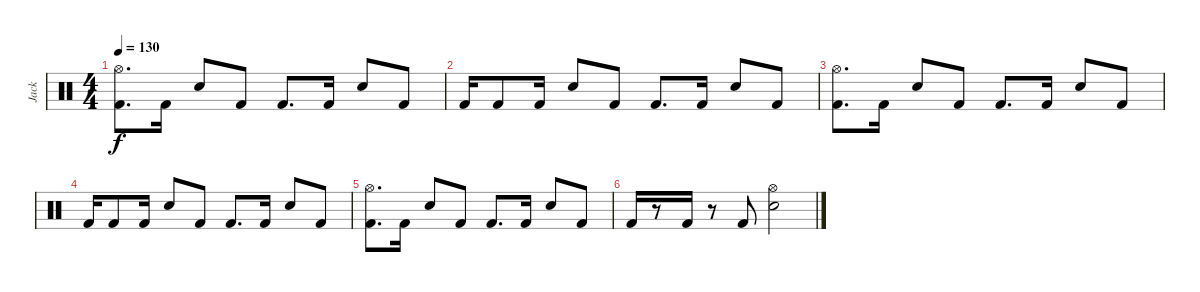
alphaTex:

\track ("Jack" "Jack") {instrument percussion}
\staff {score}
\articulation defaults
\ts (4 4)
\tempo 130
\clef neutral
\ks c
("Hi-Hat (open)" "Kick (hit) 2").8{d dy f} "Kick (hit) 2".16 "Snare (hit) 2".8 "Kick (hit) 2".8 "Kick (hit) 2".8{d} "Kick (hit) 2".16 "Snare (hit) 2".8 "Kick (hit) 2".8 |
"Kick (hit) 2".16 "Kick (hit) 2".8 "Kick (hit) 2".16 "Snare (hit) 2".8 "Kick (hit) 2".8 "Kick (hit) 2".8{d} "Kick (hit) 2".16 "Snare (hit) 2".8 "Kick (hit) 2".8 |
("Hi-Hat (open)" "Kick (hit) 2").8{d} "Kick (hit) 2".16 "Snare (hit) 2".8 "Kick (hit) 2".8 "Kick (hit) 2".8{d} "Kick (hit) 2".16 "Snare (hit) 2".8 "Kick (hit) 2".8 |
"Kick (hit) 2".16 "Kick (hit) 2".8 "Kick (hit) 2".16 "Snare (hit) 2".8 "Kick (hit) 2".8 "Kick (hit) 2".8{d} "Kick (hit) 2".16 "Snare (hit) 2".8 "Kick (hit) 2".8 |
("Hi-Hat (open)" "Kick (hit) 2").8{d} "Kick (hit) 2".16 "Snare (hit) 2".8 "Kick (hit) 2".8 "Kick (hit) 2".8{d} "Kick (hit) 2".16 "Snare (hit) 2".8 "Kick (hit) 2".8 |
"Kick (hit) 2".16 r.8 "Kick (hit) 2".16 r.8 "Kick (hit) 2".8 ("Hi-Hat (open)" "Snare (hit) 2").2
